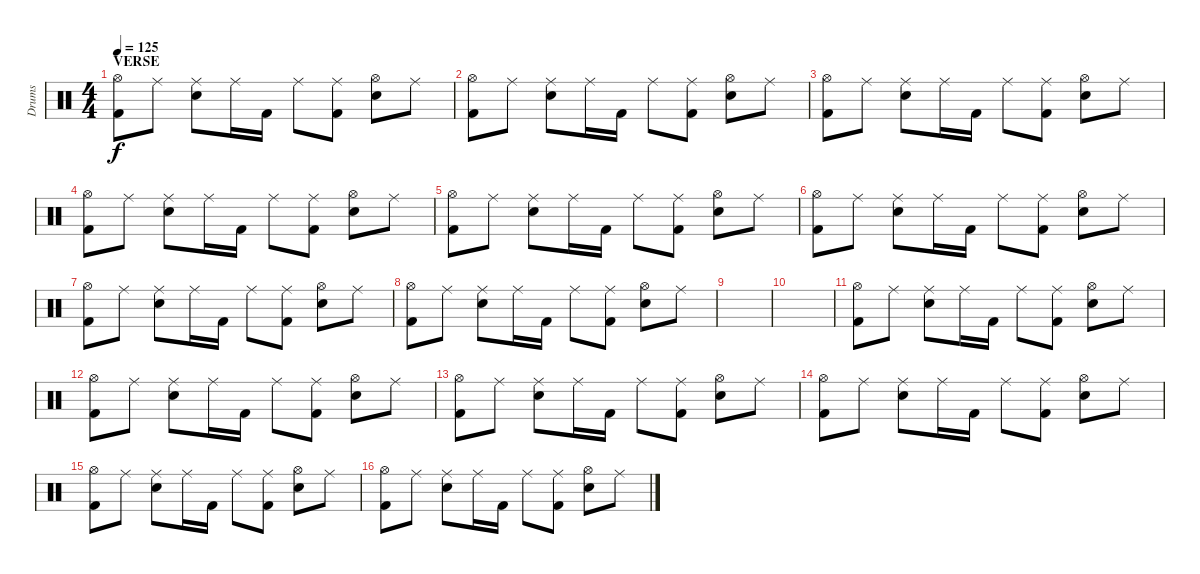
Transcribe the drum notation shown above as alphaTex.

\track ("Drums" "Drums") {instrument percussion}
\staff {score}
\articulation defaults
\ts (4 4)
\section ("" "VERSE")
\tempo 125
\clef neutral
\ks c
("Hi-Hat (open)" "Kick (hit) 2").8{dy f} "Ride (middle)".8 ("Ride (middle)" "Snare (hit) 2").8 "Ride (middle)".16 "Kick (hit) 2".16 "Ride (middle)".8 ("Ride (middle)" "Kick (hit) 2").8 ("Hi-Hat (open)" "Snare (hit) 2").8 "Ride (middle)".8 |
("Hi-Hat (open)" "Kick (hit) 2").8 "Ride (middle)".8 ("Ride (middle)" "Snare (hit) 2").8 "Ride (middle)".16 "Kick (hit) 2".16 "Ride (middle)".8 ("Ride (middle)" "Kick (hit) 2").8 ("Hi-Hat (open)" "Snare (hit) 2").8 "Ride (middle)".8 |
("Hi-Hat (open)" "Kick (hit) 2").8 "Ride (middle)".8 ("Ride (middle)" "Snare (hit) 2").8 "Ride (middle)".16 "Kick (hit) 2".16 "Ride (middle)".8 ("Ride (middle)" "Kick (hit) 2").8 ("Hi-Hat (open)" "Snare (hit) 2").8 "Ride (middle)".8 |
("Hi-Hat (open)" "Kick (hit) 2").8 "Ride (middle)".8 ("Ride (middle)" "Snare (hit) 2").8 "Ride (middle)".16 "Kick (hit) 2".16 "Ride (middle)".8 ("Ride (middle)" "Kick (hit) 2").8 ("Hi-Hat (open)" "Snare (hit) 2").8 "Ride (middle)".8 |
("Hi-Hat (open)" "Kick (hit) 2").8 "Ride (middle)".8 ("Ride (middle)" "Snare (hit) 2").8 "Ride (middle)".16 "Kick (hit) 2".16 "Ride (middle)".8 ("Ride (middle)" "Kick (hit) 2").8 ("Hi-Hat (open)" "Snare (hit) 2").8 "Ride (middle)".8 |
("Hi-Hat (open)" "Kick (hit) 2").8 "Ride (middle)".8 ("Ride (middle)" "Snare (hit) 2").8 "Ride (middle)".16 "Kick (hit) 2".16 "Ride (middle)".8 ("Ride (middle)" "Kick (hit) 2").8 ("Hi-Hat (open)" "Snare (hit) 2").8 "Ride (middle)".8 |
("Hi-Hat (open)" "Kick (hit) 2").8 "Ride (middle)".8 ("Ride (middle)" "Snare (hit) 2").8 "Ride (middle)".16 "Kick (hit) 2".16 "Ride (middle)".8 ("Ride (middle)" "Kick (hit) 2").8 ("Hi-Hat (open)" "Snare (hit) 2").8 "Ride (middle)".8 |
("Hi-Hat (open)" "Kick (hit) 2").8 "Ride (middle)".8 ("Ride (middle)" "Snare (hit) 2").8 "Ride (middle)".16 "Kick (hit) 2".16 "Ride (middle)".8 ("Ride (middle)" "Kick (hit) 2").8 ("Hi-Hat (open)" "Snare (hit) 2").8 "Ride (middle)".8 |
|
|
("Hi-Hat (open)" "Kick (hit) 2").8 "Ride (middle)".8 ("Ride (middle)" "Snare (hit) 2").8 "Ride (middle)".16 "Kick (hit) 2".16 "Ride (middle)".8 ("Ride (middle)" "Kick (hit) 2").8 ("Hi-Hat (open)" "Snare (hit) 2").8 "Ride (middle)".8 |
("Hi-Hat (open)" "Kick (hit) 2").8 "Ride (middle)".8 ("Ride (middle)" "Snare (hit) 2").8 "Ride (middle)".16 "Kick (hit) 2".16 "Ride (middle)".8 ("Ride (middle)" "Kick (hit) 2").8 ("Hi-Hat (open)" "Snare (hit) 2").8 "Ride (middle)".8 |
("Hi-Hat (open)" "Kick (hit) 2").8 "Ride (middle)".8 ("Ride (middle)" "Snare (hit) 2").8 "Ride (middle)".16 "Kick (hit) 2".16 "Ride (middle)".8 ("Ride (middle)" "Kick (hit) 2").8 ("Hi-Hat (open)" "Snare (hit) 2").8 "Ride (middle)".8 |
("Hi-Hat (open)" "Kick (hit) 2").8 "Ride (middle)".8 ("Ride (middle)" "Snare (hit) 2").8 "Ride (middle)".16 "Kick (hit) 2".16 "Ride (middle)".8 ("Ride (middle)" "Kick (hit) 2").8 ("Hi-Hat (open)" "Snare (hit) 2").8 "Ride (middle)".8 |
("Hi-Hat (open)" "Kick (hit) 2").8 "Ride (middle)".8 ("Ride (middle)" "Snare (hit) 2").8 "Ride (middle)".16 "Kick (hit) 2".16 "Ride (middle)".8 ("Ride (middle)" "Kick (hit) 2").8 ("Hi-Hat (open)" "Snare (hit) 2").8 "Ride (middle)".8 |
("Hi-Hat (open)" "Kick (hit) 2").8 "Ride (middle)".8 ("Ride (middle)" "Snare (hit) 2").8 "Ride (middle)".16 "Kick (hit) 2".16 "Ride (middle)".8 ("Ride (middle)" "Kick (hit) 2").8 ("Hi-Hat (open)" "Snare (hit) 2").8 "Ride (middle)".8
